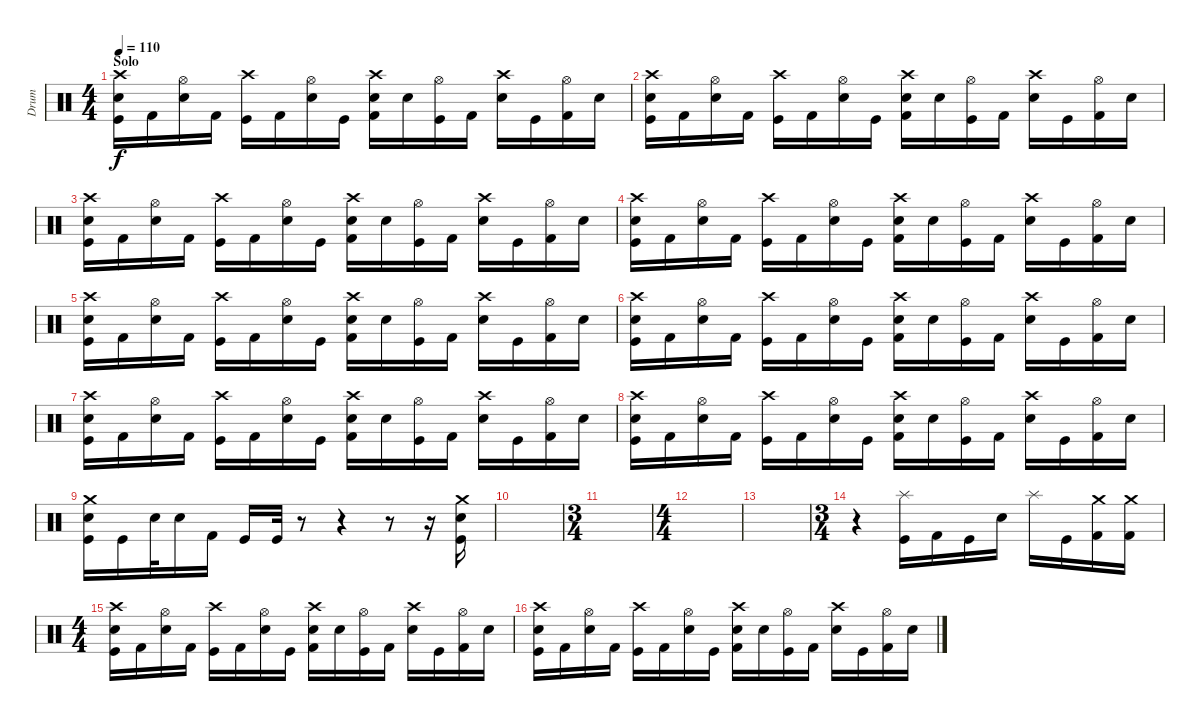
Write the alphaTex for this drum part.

\track ("Drum" "Drum") {instrument percussion}
\staff {score}
\articulation defaults
\ts (4 4)
\section ("" "Solo")
\tempo 110
\clef neutral
\ks c
("Crash high (hit)" "Snare (hit)" "Kick (hit)").16{dy f} "Kick (hit) 2".16 ("Hi-Hat (open)" "Snare (hit) 2").16 "Kick (hit) 2".16 ("Crash high (hit)" "Kick (hit)").16 "Kick (hit) 2".16 ("Hi-Hat (open)" "Snare (hit) 2").16 "Kick (hit)".16 ("Crash high (hit)" "Snare (hit)" "Kick (hit) 2").16 "Snare (hit) 2".16 ("Hi-Hat (open)" "Kick (hit)").16 "Kick (hit) 2".16 ("Crash high (hit)" "Snare (hit) 2").16 "Kick (hit)".16 ("Hi-Hat (open)" "Kick (hit) 2").16 "Snare (hit) 2".16 |
("Crash high (hit)" "Snare (hit)" "Kick (hit)").16 "Kick (hit) 2".16 ("Hi-Hat (open)" "Snare (hit) 2").16 "Kick (hit) 2".16 ("Crash high (hit)" "Kick (hit)").16 "Kick (hit) 2".16 ("Hi-Hat (open)" "Snare (hit) 2").16 "Kick (hit)".16 ("Crash high (hit)" "Snare (hit)" "Kick (hit) 2").16 "Snare (hit) 2".16 ("Hi-Hat (open)" "Kick (hit)").16 "Kick (hit) 2".16 ("Crash high (hit)" "Snare (hit) 2").16 "Kick (hit)".16 ("Hi-Hat (open)" "Kick (hit) 2").16 "Snare (hit) 2".16 |
("Crash high (hit)" "Snare (hit)" "Kick (hit)").16 "Kick (hit) 2".16 ("Hi-Hat (open)" "Snare (hit) 2").16 "Kick (hit) 2".16 ("Crash high (hit)" "Kick (hit)").16 "Kick (hit) 2".16 ("Hi-Hat (open)" "Snare (hit) 2").16 "Kick (hit)".16 ("Crash high (hit)" "Snare (hit)" "Kick (hit) 2").16 "Snare (hit) 2".16 ("Hi-Hat (open)" "Kick (hit)").16 "Kick (hit) 2".16 ("Crash high (hit)" "Snare (hit) 2").16 "Kick (hit)".16 ("Hi-Hat (open)" "Kick (hit) 2").16 "Snare (hit) 2".16 |
("Crash high (hit)" "Snare (hit)" "Kick (hit)").16 "Kick (hit) 2".16 ("Hi-Hat (open)" "Snare (hit) 2").16 "Kick (hit) 2".16 ("Crash high (hit)" "Kick (hit)").16 "Kick (hit) 2".16 ("Hi-Hat (open)" "Snare (hit) 2").16 "Kick (hit)".16 ("Crash high (hit)" "Snare (hit)" "Kick (hit) 2").16 "Snare (hit) 2".16 ("Hi-Hat (open)" "Kick (hit)").16 "Kick (hit) 2".16 ("Crash high (hit)" "Snare (hit) 2").16 "Kick (hit)".16 ("Hi-Hat (open)" "Kick (hit) 2").16 "Snare (hit) 2".16 |
("Crash high (hit)" "Snare (hit)" "Kick (hit)").16 "Kick (hit) 2".16 ("Hi-Hat (open)" "Snare (hit) 2").16 "Kick (hit) 2".16 ("Crash high (hit)" "Kick (hit)").16 "Kick (hit) 2".16 ("Hi-Hat (open)" "Snare (hit) 2").16 "Kick (hit)".16 ("Crash high (hit)" "Snare (hit)" "Kick (hit) 2").16 "Snare (hit) 2".16 ("Hi-Hat (open)" "Kick (hit)").16 "Kick (hit) 2".16 ("Crash high (hit)" "Snare (hit) 2").16 "Kick (hit)".16 ("Hi-Hat (open)" "Kick (hit) 2").16 "Snare (hit) 2".16 |
("Crash high (hit)" "Snare (hit)" "Kick (hit)").16 "Kick (hit) 2".16 ("Hi-Hat (open)" "Snare (hit) 2").16 "Kick (hit) 2".16 ("Crash high (hit)" "Kick (hit)").16 "Kick (hit) 2".16 ("Hi-Hat (open)" "Snare (hit) 2").16 "Kick (hit)".16 ("Crash high (hit)" "Snare (hit)" "Kick (hit) 2").16 "Snare (hit) 2".16 ("Hi-Hat (open)" "Kick (hit)").16 "Kick (hit) 2".16 ("Crash high (hit)" "Snare (hit) 2").16 "Kick (hit)".16 ("Hi-Hat (open)" "Kick (hit) 2").16 "Snare (hit) 2".16 |
("Crash high (hit)" "Snare (hit)" "Kick (hit)").16 "Kick (hit) 2".16 ("Hi-Hat (open)" "Snare (hit) 2").16 "Kick (hit) 2".16 ("Crash high (hit)" "Kick (hit)").16 "Kick (hit) 2".16 ("Hi-Hat (open)" "Snare (hit) 2").16 "Kick (hit)".16 ("Crash high (hit)" "Snare (hit)" "Kick (hit) 2").16 "Snare (hit) 2".16 ("Hi-Hat (open)" "Kick (hit)").16 "Kick (hit) 2".16 ("Crash high (hit)" "Snare (hit) 2").16 "Kick (hit)".16 ("Hi-Hat (open)" "Kick (hit) 2").16 "Snare (hit) 2".16 |
("Crash high (hit)" "Snare (hit)" "Kick (hit)").16 "Kick (hit) 2".16 ("Hi-Hat (open)" "Snare (hit) 2").16 "Kick (hit) 2".16 ("Crash high (hit)" "Kick (hit)").16 "Kick (hit) 2".16 ("Hi-Hat (open)" "Snare (hit) 2").16 "Kick (hit)".16 ("Crash high (hit)" "Snare (hit)" "Kick (hit) 2").16 "Snare (hit) 2".16 ("Hi-Hat (open)" "Kick (hit)").16 "Kick (hit) 2".16 ("Crash high (hit)" "Snare (hit) 2").16 "Kick (hit)".16 ("Hi-Hat (open)" "Kick (hit) 2").16 "Snare (hit) 2".16 |
("Crash medium (hit)" "Snare (hit) 2" "Kick (hit)").16 "Kick (hit)".16 "Snare (hit) 2".32 "Snare (hit) 2".16 "Kick (hit) 2".16 "Kick (hit)".16 "Kick (hit)".32 r.8 r.4 r.8 r.16 ("Crash medium (hit)" "Snare (hit) 2" "Kick (hit)").16 |
|
\ts (3 4)
|
\ts (4 4)
|
|
\ts (3 4)
r.4 ("Splash (hit)" "Kick (hit)").16 "Kick (hit) 2".16 "Kick (hit)".16 "Snare (hit) 2".16 "Splash (hit)".16 "Kick (hit)".16 ("Crash medium (hit)" "Kick (hit) 2").16 ("Crash medium (hit)" "Kick (hit) 2").16 |
\ts (4 4)
("Crash high (hit)" "Snare (hit)" "Kick (hit)").16 "Kick (hit) 2".16 ("Hi-Hat (open)" "Snare (hit) 2").16 "Kick (hit) 2".16 ("Crash high (hit)" "Kick (hit)").16 "Kick (hit) 2".16 ("Hi-Hat (open)" "Snare (hit) 2").16 "Kick (hit)".16 ("Crash high (hit)" "Snare (hit)" "Kick (hit) 2").16 "Snare (hit) 2".16 ("Hi-Hat (open)" "Kick (hit)").16 "Kick (hit) 2".16 ("Crash high (hit)" "Snare (hit) 2").16 "Kick (hit)".16 ("Hi-Hat (open)" "Kick (hit) 2").16 "Snare (hit) 2".16 |
("Crash high (hit)" "Snare (hit)" "Kick (hit)").16 "Kick (hit) 2".16 ("Hi-Hat (open)" "Snare (hit) 2").16 "Kick (hit) 2".16 ("Crash high (hit)" "Kick (hit)").16 "Kick (hit) 2".16 ("Hi-Hat (open)" "Snare (hit) 2").16 "Kick (hit)".16 ("Crash high (hit)" "Snare (hit)" "Kick (hit) 2").16 "Snare (hit) 2".16 ("Hi-Hat (open)" "Kick (hit)").16 "Kick (hit) 2".16 ("Crash high (hit)" "Snare (hit) 2").16 "Kick (hit)".16 ("Hi-Hat (open)" "Kick (hit) 2").16 "Snare (hit) 2".16
